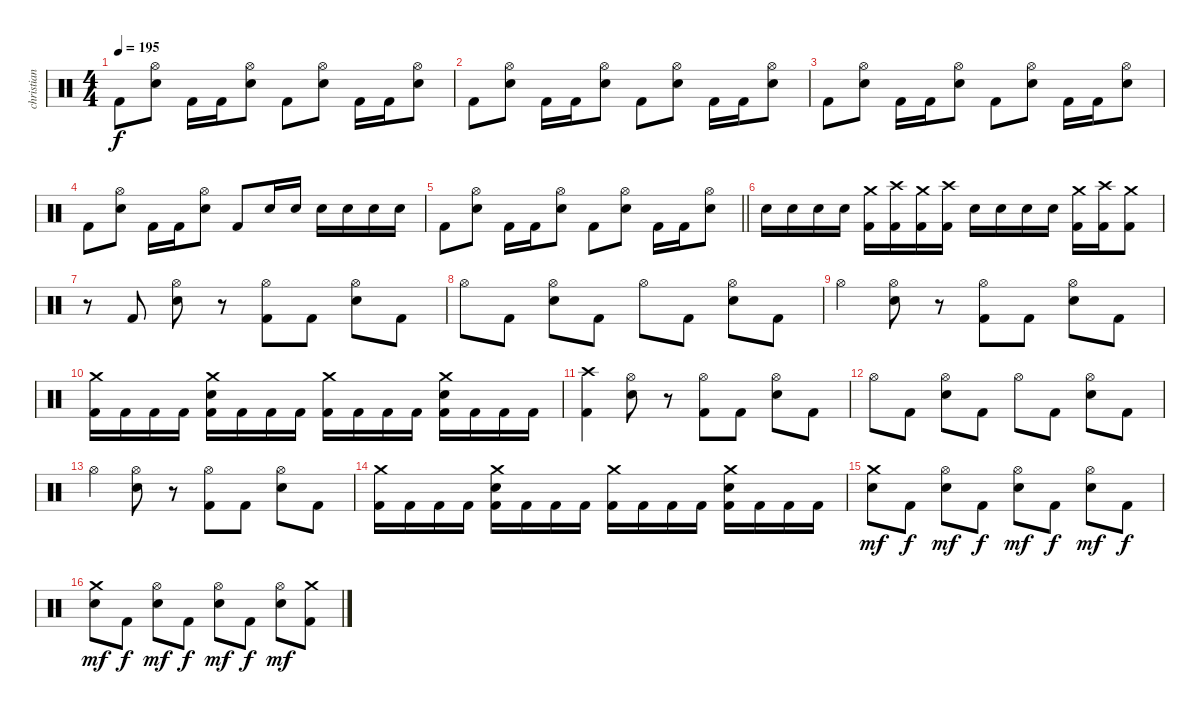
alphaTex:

\track ("christian" "christian") {instrument percussion}
\staff {score}
\articulation defaults
\ts (4 4)
\tempo 195
\clef neutral
\ks c "Kick (hit) 2".8{dy f}
("Hi-Hat (open)" "Electric Snare (hit)").8 "Kick (hit) 2".16 "Kick (hit) 2".16 ("Hi-Hat (open)" "Electric Snare (hit)").8 "Kick (hit) 2".8 ("Hi-Hat (open)" "Electric Snare (hit)").8 "Kick (hit) 2".16 "Kick (hit) 2".16 ("Hi-Hat (open)" "Electric Snare (hit)").8 |
"Kick (hit) 2".8 ("Hi-Hat (open)" "Electric Snare (hit)").8 "Kick (hit) 2".16 "Kick (hit) 2".16 ("Hi-Hat (open)" "Electric Snare (hit)").8 "Kick (hit) 2".8 ("Hi-Hat (open)" "Electric Snare (hit)").8 "Kick (hit) 2".16 "Kick (hit) 2".16 ("Hi-Hat (open)" "Electric Snare (hit)").8 |
"Kick (hit) 2".8 ("Hi-Hat (open)" "Electric Snare (hit)").8 "Kick (hit) 2".16 "Kick (hit) 2".16 ("Hi-Hat (open)" "Electric Snare (hit)").8 "Kick (hit) 2".8 ("Hi-Hat (open)" "Electric Snare (hit)").8 "Kick (hit) 2".16 "Kick (hit) 2".16 ("Hi-Hat (open)" "Electric Snare (hit)").8 |
"Kick (hit) 2".8 ("Hi-Hat (open)" "Electric Snare (hit)").8 "Kick (hit) 2".16 "Kick (hit) 2".16 ("Hi-Hat (open)" "Electric Snare (hit)").8 "Kick (hit) 2".8 "Electric Snare (hit)".16 "Electric Snare (hit)".16 "Electric Snare (hit)".16 "Electric Snare (hit)".16 "Electric Snare (hit)".16 "Electric Snare (hit)".16 |
\barLineRight lightlight "Kick (hit) 2".8
("Hi-Hat (open)" "Electric Snare (hit)").8 "Kick (hit) 2".16 "Kick (hit) 2".16 ("Hi-Hat (open)" "Electric Snare (hit)").8 "Kick (hit) 2".8 ("Hi-Hat (open)" "Electric Snare (hit)").8 "Kick (hit) 2".16 "Kick (hit) 2".16 ("Hi-Hat (open)" "Electric Snare (hit)").8 |
\section ("" "")
"Electric Snare (hit)".16 "Electric Snare (hit)".16 "Electric Snare (hit)".16 "Electric Snare (hit)".16 ("Crash medium (hit)" "Kick (hit) 2").16 ("Crash high (hit)" "Kick (hit) 2").16 ("Crash medium (hit)" "Kick (hit) 2").16 ("Crash high (hit)" "Kick (hit) 2").16 "Electric Snare (hit)".16 "Electric Snare (hit)".16 "Electric Snare (hit)".16 "Electric Snare (hit)".16 ("Crash medium (hit)" "Kick (hit) 2").16 ("Crash high (hit)" "Kick (hit) 2").16 ("Crash medium (hit)" "Kick (hit) 2").8 |
r.8 "Kick (hit) 2".8 ("Hi-Hat (open)" "Electric Snare (hit)").8 r.8 ("Hi-Hat (open)" "Kick (hit) 2").8 "Kick (hit) 2".8 ("Hi-Hat (open)" "Electric Snare (hit)").8 "Kick (hit) 2".8 |
"Hi-Hat (open)".8 "Kick (hit) 2".8 ("Hi-Hat (open)" "Electric Snare (hit)").8 "Kick (hit) 2".8 "Hi-Hat (open)".8 "Kick (hit) 2".8 ("Hi-Hat (open)" "Electric Snare (hit)").8 "Kick (hit) 2".8 |
"Hi-Hat (open)".4 ("Hi-Hat (open)" "Electric Snare (hit)").8 r.8 ("Hi-Hat (open)" "Kick (hit) 2").8 "Kick (hit) 2".8 ("Hi-Hat (open)" "Electric Snare (hit)").8 "Kick (hit) 2".8 |
("Crash medium (hit)" "Kick (hit) 2").16 "Kick (hit) 2".16 "Kick (hit) 2".16 "Kick (hit) 2".16 ("Crash medium (hit)" "Electric Snare (hit)" "Kick (hit) 2").16 "Kick (hit) 2".16 "Kick (hit) 2".16 "Kick (hit) 2".16 ("Crash medium (hit)" "Kick (hit) 2").16 "Kick (hit) 2".16 "Kick (hit) 2".16 "Kick (hit) 2".16 ("Crash medium (hit)" "Electric Snare (hit)" "Kick (hit) 2").16 "Kick (hit) 2".16 "Kick (hit) 2".16 "Kick (hit) 2".16 |
("Crash high (hit)" "Kick (hit) 2").4 ("Hi-Hat (open)" "Electric Snare (hit)").8 r.8 ("Hi-Hat (open)" "Kick (hit) 2").8 "Kick (hit) 2".8 ("Hi-Hat (open)" "Electric Snare (hit)").8 "Kick (hit) 2".8 |
"Hi-Hat (open)".8 "Kick (hit) 2".8 ("Hi-Hat (open)" "Electric Snare (hit)").8 "Kick (hit) 2".8 "Hi-Hat (open)".8 "Kick (hit) 2".8 ("Hi-Hat (open)" "Electric Snare (hit)").8 "Kick (hit) 2".8 |
"Hi-Hat (open)".4 ("Hi-Hat (open)" "Electric Snare (hit)").8 r.8 ("Hi-Hat (open)" "Kick (hit) 2").8 "Kick (hit) 2".8 ("Hi-Hat (open)" "Electric Snare (hit)").8 "Kick (hit) 2".8 |
("Crash medium (hit)" "Kick (hit) 2").16 "Kick (hit) 2".16 "Kick (hit) 2".16 "Kick (hit) 2".16 ("Crash medium (hit)" "Electric Snare (hit)" "Kick (hit) 2").16 "Kick (hit) 2".16 "Kick (hit) 2".16 "Kick (hit) 2".16 ("Crash medium (hit)" "Kick (hit) 2").16 "Kick (hit) 2".16 "Kick (hit) 2".16 "Kick (hit) 2".16 ("Crash medium (hit)" "Electric Snare (hit)" "Kick (hit) 2").16 "Kick (hit) 2".16 "Kick (hit) 2".16 "Kick (hit) 2".16 |
("Crash medium (hit)" "Electric Snare (hit)").8{dy mf} "Kick (hit) 2".8{dy f} ("Hi-Hat (open)" "Electric Snare (hit)").8{dy mf} "Kick (hit) 2".8{dy f} ("Hi-Hat (open)" "Electric Snare (hit)").8{dy mf} "Kick (hit) 2".8{dy f} ("Hi-Hat (open)" "Electric Snare (hit)").8{dy mf} "Kick (hit) 2".8{dy f} |
("Crash medium (hit)" "Electric Snare (hit)").8{dy mf} "Kick (hit) 2".8{dy f} ("Hi-Hat (open)" "Electric Snare (hit)").8{dy mf} "Kick (hit) 2".8{dy f} ("Hi-Hat (open)" "Electric Snare (hit)").8{dy mf} "Kick (hit) 2".8{dy f} ("Hi-Hat (open)" "Electric Snare (hit)").8{dy mf} ("Crash medium (hit)" "Kick (hit) 2").8
